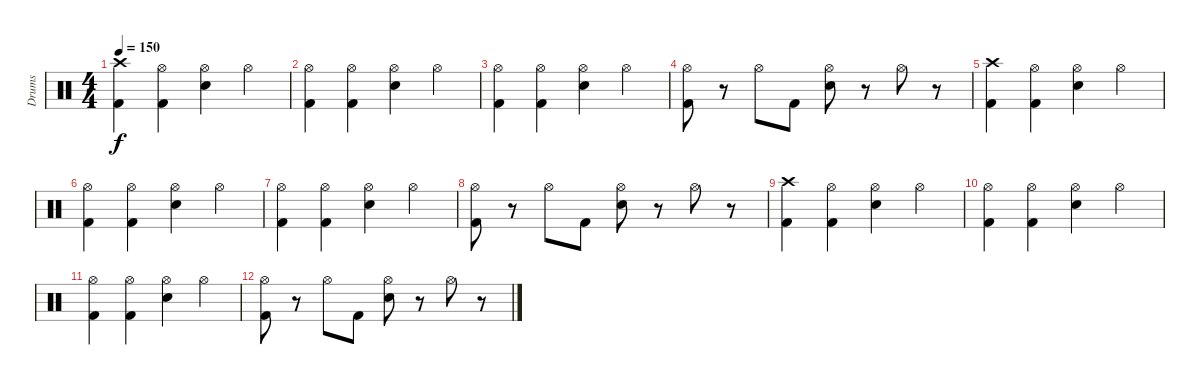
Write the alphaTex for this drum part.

\track ("Drums" "Drums") {instrument percussion}
\staff {score}
\articulation defaults
\ts (4 4)
\tempo 150
\clef neutral
\ks c
("Crash high (hit)" "Kick (hit) 2").4{dy f} ("Hi-Hat (open)" "Kick (hit) 2").4 ("Hi-Hat (open)" "Electric Snare (hit)").4 "Hi-Hat (open)".4 |
("Hi-Hat (open)" "Kick (hit) 2").4 ("Hi-Hat (open)" "Kick (hit) 2").4 ("Hi-Hat (open)" "Electric Snare (hit)").4 "Hi-Hat (open)".4 |
("Hi-Hat (open)" "Kick (hit) 2").4 ("Hi-Hat (open)" "Kick (hit) 2").4 ("Hi-Hat (open)" "Electric Snare (hit)").4 "Hi-Hat (open)".4 |
("Hi-Hat (open)" "Kick (hit) 2").8 r.8 "Hi-Hat (open)".8 "Kick (hit) 2".8 ("Hi-Hat (open)" "Electric Snare (hit)").8 r.8 "Hi-Hat (open)".8 r.8 |
("Crash high (hit)" "Kick (hit) 2").4 ("Hi-Hat (open)" "Kick (hit) 2").4 ("Hi-Hat (open)" "Electric Snare (hit)").4 "Hi-Hat (open)".4 |
("Hi-Hat (open)" "Kick (hit) 2").4 ("Hi-Hat (open)" "Kick (hit) 2").4 ("Hi-Hat (open)" "Electric Snare (hit)").4 "Hi-Hat (open)".4 |
("Hi-Hat (open)" "Kick (hit) 2").4 ("Hi-Hat (open)" "Kick (hit) 2").4 ("Hi-Hat (open)" "Electric Snare (hit)").4 "Hi-Hat (open)".4 |
("Hi-Hat (open)" "Kick (hit) 2").8 r.8 "Hi-Hat (open)".8 "Kick (hit) 2".8 ("Hi-Hat (open)" "Electric Snare (hit)").8 r.8 "Hi-Hat (open)".8 r.8 |
("Crash high (hit)" "Kick (hit) 2").4 ("Hi-Hat (open)" "Kick (hit) 2").4 ("Hi-Hat (open)" "Electric Snare (hit)").4 "Hi-Hat (open)".4 |
("Hi-Hat (open)" "Kick (hit) 2").4 ("Hi-Hat (open)" "Kick (hit) 2").4 ("Hi-Hat (open)" "Electric Snare (hit)").4 "Hi-Hat (open)".4 |
("Hi-Hat (open)" "Kick (hit) 2").4 ("Hi-Hat (open)" "Kick (hit) 2").4 ("Hi-Hat (open)" "Electric Snare (hit)").4 "Hi-Hat (open)".4 |
("Hi-Hat (open)" "Kick (hit) 2").8 r.8 "Hi-Hat (open)".8 "Kick (hit) 2".8 ("Hi-Hat (open)" "Electric Snare (hit)").8 r.8 "Hi-Hat (open)".8 r.8
